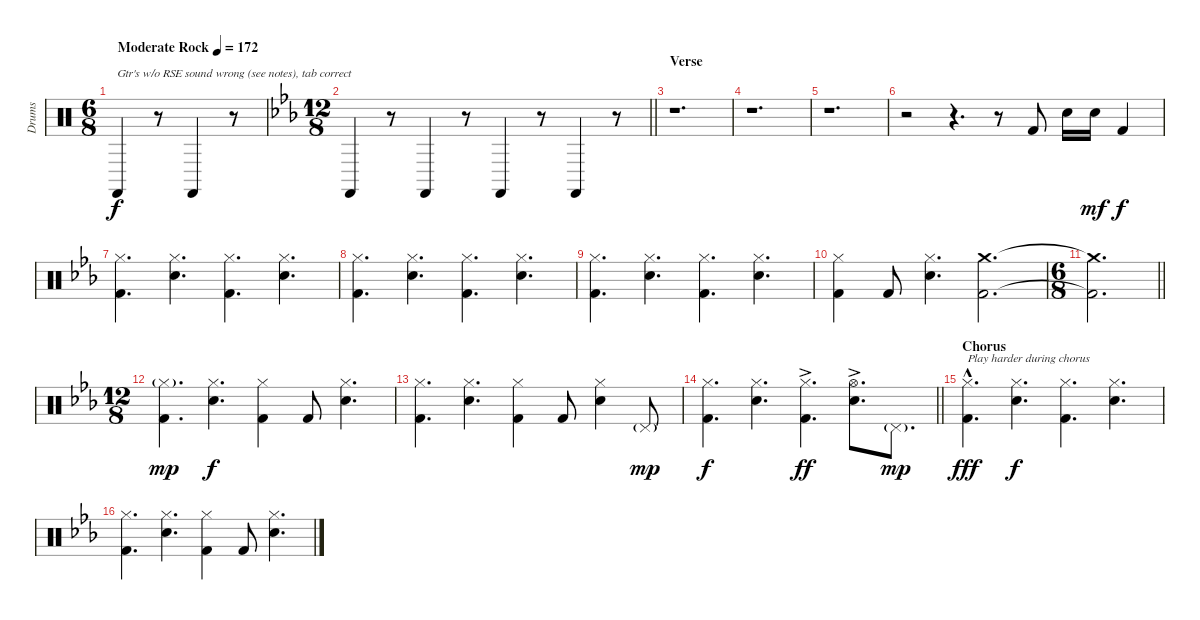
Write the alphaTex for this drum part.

\track ("Drums" "Drums") {instrument percussion}
\staff {score}
\articulation defaults
\ts (6 8)
\tempo (172 "Moderate Rock")
\clef neutral
\ks c "Castanets (hit)".4{txt "Gtr's w/o RSE sound wrong (see notes), tab correct" dy f}
r.8 "Castanets (hit)".4 r.8 |
\ts (12 8)
\barLineRight lightlight
\ks cminor "Castanets (hit)".4
r.8 "Castanets (hit)".4 r.8 "Castanets (hit)".4 r.8 "Castanets (hit)".4 r.8 |
\section ("" "Verse")
r.1{d} |
r.1{d} |
r.1{d} |
r.2 r.4{d} r.8 "Kick (hit) 2".8 "Electric Snare (hit)".16 "Electric Snare (hit)".16{dy mf} "Kick (hit) 2".4{dy f} |
("Hi-Hat (closed)" "Kick (hit) 2").4{d} ("Hi-Hat (closed)" "Electric Snare (hit)").4{d} ("Hi-Hat (closed)" "Kick (hit) 2").4{d} ("Hi-Hat (closed)" "Electric Snare (hit)").4{d} |
("Hi-Hat (closed)" "Kick (hit) 2").4{d} ("Hi-Hat (closed)" "Electric Snare (hit)").4{d} ("Hi-Hat (closed)" "Kick (hit) 2").4{d} ("Hi-Hat (closed)" "Electric Snare (hit)").4{d} |
("Hi-Hat (closed)" "Kick (hit) 2").4{d} ("Hi-Hat (closed)" "Electric Snare (hit)").4{d} ("Hi-Hat (closed)" "Kick (hit) 2").4{d} ("Hi-Hat (closed)" "Electric Snare (hit)").4{d} |
("Hi-Hat (closed)" "Kick (hit) 2").4 "Kick (hit) 2".8 ("Hi-Hat (closed)" "Electric Snare (hit)").4{d} ("Crash medium (hit)" "Kick (hit) 2").2{d} |
\ts (6 8)
\barLineRight lightlight
("Crash medium (hit)"{t} "Kick (hit) 2"{t}).2{d} |
\ts (12 8)
("Hi-Hat (closed)"{g} "Kick (hit) 2").4{d dy mp} ("Hi-Hat (closed)" "Electric Snare (hit)").4{d dy f} ("Hi-Hat (closed)" "Kick (hit) 2").4 "Kick (hit) 2".8 ("Hi-Hat (closed)" "Electric Snare (hit)").4{d} |
("Hi-Hat (closed)" "Kick (hit) 2").4{d} ("Hi-Hat (closed)" "Electric Snare (hit)").4{d} ("Hi-Hat (closed)" "Kick (hit) 2").4 "Kick (hit) 2".8 ("Hi-Hat (closed)" "Electric Snare (hit)").4 "Pedal Hi-Hat (hit)"{g}.8{dy mp} |
\barLineRight lightlight
("Hi-Hat (closed)" "Kick (hit) 2").4{d dy f} ("Hi-Hat (closed)" "Electric Snare (hit)").4{d} ("Hi-Hat (closed)"{ac} "Kick (hit) 2").4{d dy ff} ("Hi-Hat (open)" "Electric Snare (hit)"{ac}).8{d} "Pedal Hi-Hat (hit)"{g}.8{d dy mp} |
\section ("" "Chorus")
("Hi-Hat (closed)" "Kick (hit) 2"{hac}).4{d txt "Play harder during chorus" dy fff} ("Hi-Hat (closed)" "Electric Snare (hit)").4{d dy f} ("Hi-Hat (closed)" "Kick (hit) 2").4{d} ("Hi-Hat (closed)" "Electric Snare (hit)").4{d} |
("Hi-Hat (closed)" "Kick (hit) 2").4{d} ("Hi-Hat (closed)" "Electric Snare (hit)").4{d} ("Hi-Hat (closed)" "Kick (hit) 2").4 "Kick (hit) 2".8 ("Hi-Hat (closed)" "Electric Snare (hit)").4{d}
